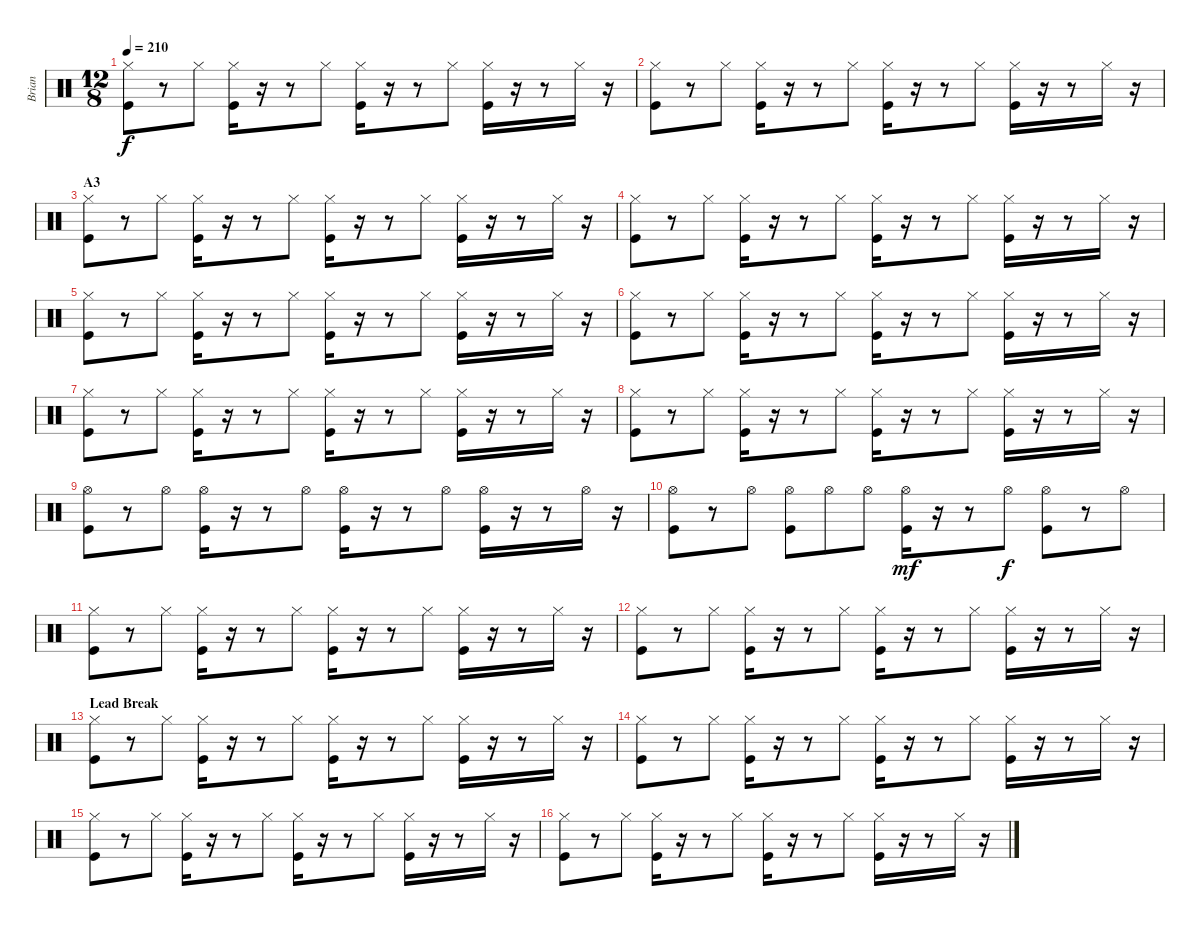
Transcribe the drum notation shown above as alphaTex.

\track ("Brian" "Brian") {instrument percussion}
\staff {score}
\articulation defaults
\ts (12 8)
\tempo 210
\clef neutral
\ks c
("Hi-Hat (closed)" "Kick (hit)").8{dy f} r.8 "Hi-Hat (closed)".8 ("Hi-Hat (closed)" "Kick (hit)").16 r.16 r.8 "Hi-Hat (closed)".8 ("Hi-Hat (closed)" "Kick (hit)").16 r.16 r.8 "Hi-Hat (closed)".8 ("Hi-Hat (closed)" "Kick (hit)").16 r.16 r.8 "Hi-Hat (closed)".16 r.16 |
("Hi-Hat (closed)" "Kick (hit)").8 r.8 "Hi-Hat (closed)".8 ("Hi-Hat (closed)" "Kick (hit)").16 r.16 r.8 "Hi-Hat (closed)".8 ("Hi-Hat (closed)" "Kick (hit)").16 r.16 r.8 "Hi-Hat (closed)".8 ("Hi-Hat (closed)" "Kick (hit)").16 r.16 r.8 "Hi-Hat (closed)".16 r.16 |
\section ("" "A3")
("Hi-Hat (closed)" "Kick (hit)").8 r.8 "Hi-Hat (closed)".8 ("Hi-Hat (closed)" "Kick (hit)").16 r.16 r.8 "Hi-Hat (closed)".8 ("Hi-Hat (closed)" "Kick (hit)").16 r.16 r.8 "Hi-Hat (closed)".8 ("Hi-Hat (closed)" "Kick (hit)").16 r.16 r.8 "Hi-Hat (closed)".16 r.16 |
("Hi-Hat (closed)" "Kick (hit)").8 r.8 "Hi-Hat (closed)".8 ("Hi-Hat (closed)" "Kick (hit)").16 r.16 r.8 "Hi-Hat (closed)".8 ("Hi-Hat (closed)" "Kick (hit)").16 r.16 r.8 "Hi-Hat (closed)".8 ("Hi-Hat (closed)" "Kick (hit)").16 r.16 r.8 "Hi-Hat (closed)".16 r.16 |
("Hi-Hat (closed)" "Kick (hit)").8 r.8 "Hi-Hat (closed)".8 ("Hi-Hat (closed)" "Kick (hit)").16 r.16 r.8 "Hi-Hat (closed)".8 ("Hi-Hat (closed)" "Kick (hit)").16 r.16 r.8 "Hi-Hat (closed)".8 ("Hi-Hat (closed)" "Kick (hit)").16 r.16 r.8 "Hi-Hat (closed)".16 r.16 |
("Hi-Hat (closed)" "Kick (hit)").8 r.8 "Hi-Hat (closed)".8 ("Hi-Hat (closed)" "Kick (hit)").16 r.16 r.8 "Hi-Hat (closed)".8 ("Hi-Hat (closed)" "Kick (hit)").16 r.16 r.8 "Hi-Hat (closed)".8 ("Hi-Hat (closed)" "Kick (hit)").16 r.16 r.8 "Hi-Hat (closed)".16 r.16 |
("Hi-Hat (closed)" "Kick (hit)").8 r.8 "Hi-Hat (closed)".8 ("Hi-Hat (closed)" "Kick (hit)").16 r.16 r.8 "Hi-Hat (closed)".8 ("Hi-Hat (closed)" "Kick (hit)").16 r.16 r.8 "Hi-Hat (closed)".8 ("Hi-Hat (closed)" "Kick (hit)").16 r.16 r.8 "Hi-Hat (closed)".16 r.16 |
("Hi-Hat (closed)" "Kick (hit)").8 r.8 "Hi-Hat (closed)".8 ("Hi-Hat (closed)" "Kick (hit)").16 r.16 r.8 "Hi-Hat (closed)".8 ("Hi-Hat (closed)" "Kick (hit)").16 r.16 r.8 "Hi-Hat (closed)".8 ("Hi-Hat (closed)" "Kick (hit)").16 r.16 r.8 "Hi-Hat (closed)".16 r.16 |
("Hi-Hat (open)" "Kick (hit)").8 r.8 "Hi-Hat (open)".8 ("Hi-Hat (open)" "Kick (hit)").16 r.16 r.8 "Hi-Hat (open)".8 ("Hi-Hat (open)" "Kick (hit)").16 r.16 r.8 "Hi-Hat (open)".8 ("Hi-Hat (open)" "Kick (hit)").16 r.16 r.8 "Hi-Hat (open)".16 r.16 |
("Hi-Hat (open)" "Kick (hit)").8 r.8 "Hi-Hat (open)".8 ("Hi-Hat (open)" "Kick (hit)").8 "Hi-Hat (open)".8 "Hi-Hat (open)".8 ("Hi-Hat (open)" "Kick (hit)").16{dy mf} r.16 r.8 "Hi-Hat (open)".8{dy f} ("Hi-Hat (open)" "Kick (hit)").8 r.8 "Hi-Hat (open)".8 |
("Hi-Hat (closed)" "Kick (hit)").8 r.8 "Hi-Hat (closed)".8 ("Hi-Hat (closed)" "Kick (hit)").16 r.16 r.8 "Hi-Hat (closed)".8 ("Hi-Hat (closed)" "Kick (hit)").16 r.16 r.8 "Hi-Hat (closed)".8 ("Hi-Hat (closed)" "Kick (hit)").16 r.16 r.8 "Hi-Hat (closed)".16 r.16 |
("Hi-Hat (closed)" "Kick (hit)").8 r.8 "Hi-Hat (closed)".8 ("Hi-Hat (closed)" "Kick (hit)").16 r.16 r.8 "Hi-Hat (closed)".8 ("Hi-Hat (closed)" "Kick (hit)").16 r.16 r.8 "Hi-Hat (closed)".8 ("Hi-Hat (closed)" "Kick (hit)").16 r.16 r.8 "Hi-Hat (closed)".16 r.16 |
\section ("" "Lead Break")
("Hi-Hat (closed)" "Kick (hit)").8 r.8 "Hi-Hat (closed)".8 ("Hi-Hat (closed)" "Kick (hit)").16 r.16 r.8 "Hi-Hat (closed)".8 ("Hi-Hat (closed)" "Kick (hit)").16 r.16 r.8 "Hi-Hat (closed)".8 ("Hi-Hat (closed)" "Kick (hit)").16 r.16 r.8 "Hi-Hat (closed)".16 r.16 |
("Hi-Hat (closed)" "Kick (hit)").8 r.8 "Hi-Hat (closed)".8 ("Hi-Hat (closed)" "Kick (hit)").16 r.16 r.8 "Hi-Hat (closed)".8 ("Hi-Hat (closed)" "Kick (hit)").16 r.16 r.8 "Hi-Hat (closed)".8 ("Hi-Hat (closed)" "Kick (hit)").16 r.16 r.8 "Hi-Hat (closed)".16 r.16 |
("Hi-Hat (closed)" "Kick (hit)").8 r.8 "Hi-Hat (closed)".8 ("Hi-Hat (closed)" "Kick (hit)").16 r.16 r.8 "Hi-Hat (closed)".8 ("Hi-Hat (closed)" "Kick (hit)").16 r.16 r.8 "Hi-Hat (closed)".8 ("Hi-Hat (closed)" "Kick (hit)").16 r.16 r.8 "Hi-Hat (closed)".16 r.16 |
("Hi-Hat (closed)" "Kick (hit)").8 r.8 "Hi-Hat (closed)".8 ("Hi-Hat (closed)" "Kick (hit)").16 r.16 r.8 "Hi-Hat (closed)".8 ("Hi-Hat (closed)" "Kick (hit)").16 r.16 r.8 "Hi-Hat (closed)".8 ("Hi-Hat (closed)" "Kick (hit)").16 r.16 r.8 "Hi-Hat (closed)".16 r.16
